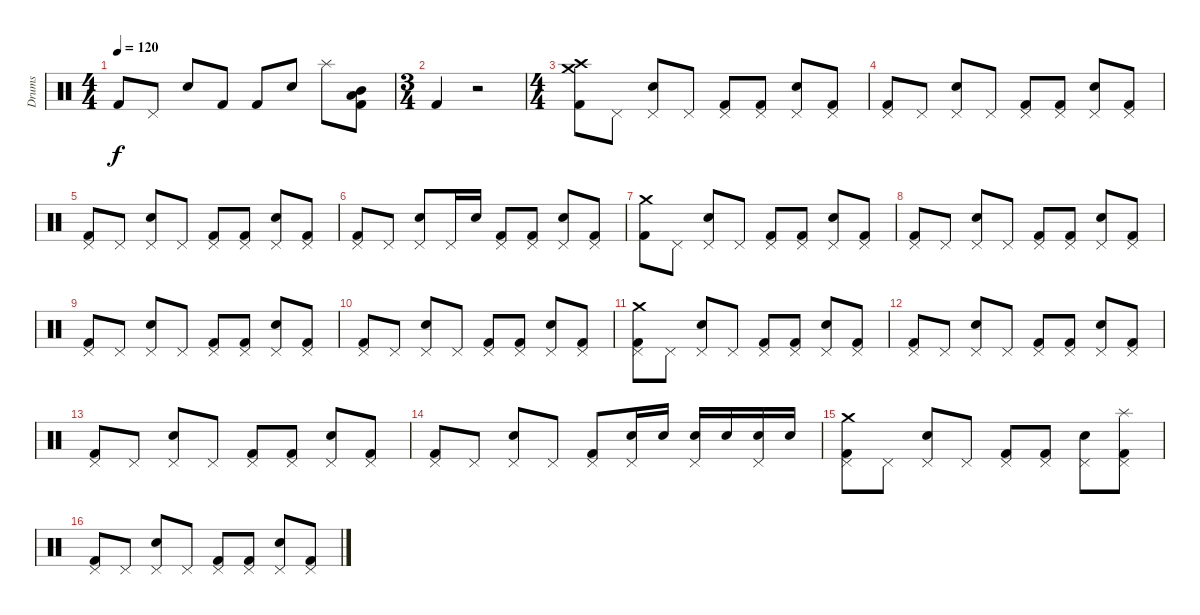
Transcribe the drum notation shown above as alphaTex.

\track ("Drums" "Drums") {instrument percussion}
\staff {score}
\articulation defaults
\ts (4 4)
\tempo 120
\clef neutral
\ks c "Kick (hit) 2".8{dy f} "Pedal Hi-Hat (hit)".8 "Snare (hit) 2".8 "Kick (hit) 2".8 "Kick (hit) 2".8 "Snare (hit) 2".8 "Splash (hit)".8
("Low Tom (hit)" "Mid Tom (hit)" "Kick (hit) 2").8 |
\ts (3 4)
"Kick (hit) 2".4 r.2 |
\ts (4 4)
("Crash high (hit)" "Crash medium (hit)" "Kick (hit) 2").8 "Pedal Hi-Hat (hit)".8 ("Pedal Hi-Hat (hit)" "Snare (hit) 2").8 "Pedal Hi-Hat (hit)".8 ("Pedal Hi-Hat (hit)" "Kick (hit) 2").8 ("Pedal Hi-Hat (hit)" "Kick (hit) 2").8 ("Pedal Hi-Hat (hit)" "Snare (hit) 2").8 ("Pedal Hi-Hat (hit)" "Kick (hit) 2").8 |
("Pedal Hi-Hat (hit)" "Kick (hit) 2").8 "Pedal Hi-Hat (hit)".8 ("Pedal Hi-Hat (hit)" "Snare (hit) 2").8 "Pedal Hi-Hat (hit)".8 ("Kick (hit) 2" "Pedal Hi-Hat (hit)").8 ("Kick (hit) 2" "Pedal Hi-Hat (hit)").8 ("Snare (hit) 2" "Pedal Hi-Hat (hit)").8 ("Kick (hit) 2" "Pedal Hi-Hat (hit)").8 |
("Pedal Hi-Hat (hit)" "Kick (hit) 2").8 "Pedal Hi-Hat (hit)".8 ("Pedal Hi-Hat (hit)" "Snare (hit) 2").8 "Pedal Hi-Hat (hit)".8 ("Kick (hit) 2" "Pedal Hi-Hat (hit)").8 ("Kick (hit) 2" "Pedal Hi-Hat (hit)").8 ("Snare (hit) 2" "Pedal Hi-Hat (hit)").8 ("Kick (hit) 2" "Pedal Hi-Hat (hit)").8 |
("Pedal Hi-Hat (hit)" "Kick (hit) 2").8 "Pedal Hi-Hat (hit)".8 ("Pedal Hi-Hat (hit)" "Snare (hit) 2").8 "Pedal Hi-Hat (hit)".16 "Snare (hit) 2".16 ("Kick (hit) 2" "Pedal Hi-Hat (hit)").8 ("Kick (hit) 2" "Pedal Hi-Hat (hit)").8 ("Snare (hit) 2" "Pedal Hi-Hat (hit)").8 ("Kick (hit) 2" "Pedal Hi-Hat (hit)").8 |
("Kick (hit) 2" "Crash medium (hit)").8 "Pedal Hi-Hat (hit)".8 ("Pedal Hi-Hat (hit)" "Snare (hit) 2").8 "Pedal Hi-Hat (hit)".8 ("Kick (hit) 2" "Pedal Hi-Hat (hit)").8 ("Kick (hit) 2" "Pedal Hi-Hat (hit)").8 ("Snare (hit) 2" "Pedal Hi-Hat (hit)").8 ("Kick (hit) 2" "Pedal Hi-Hat (hit)").8 |
("Pedal Hi-Hat (hit)" "Kick (hit) 2").8 "Pedal Hi-Hat (hit)".8 ("Pedal Hi-Hat (hit)" "Snare (hit) 2").8 "Pedal Hi-Hat (hit)".8 ("Kick (hit) 2" "Pedal Hi-Hat (hit)").8 ("Kick (hit) 2" "Pedal Hi-Hat (hit)").8 ("Snare (hit) 2" "Pedal Hi-Hat (hit)").8 ("Kick (hit) 2" "Pedal Hi-Hat (hit)").8 |
("Pedal Hi-Hat (hit)" "Kick (hit) 2").8 "Pedal Hi-Hat (hit)".8 ("Pedal Hi-Hat (hit)" "Snare (hit) 2").8 "Pedal Hi-Hat (hit)".8 ("Kick (hit) 2" "Pedal Hi-Hat (hit)").8 ("Kick (hit) 2" "Pedal Hi-Hat (hit)").8 ("Snare (hit) 2" "Pedal Hi-Hat (hit)").8 ("Kick (hit) 2" "Pedal Hi-Hat (hit)").8 |
("Pedal Hi-Hat (hit)" "Kick (hit) 2").8 "Pedal Hi-Hat (hit)".8 ("Pedal Hi-Hat (hit)" "Snare (hit) 2").8 "Pedal Hi-Hat (hit)".8 ("Pedal Hi-Hat (hit)" "Kick (hit) 2").8 ("Pedal Hi-Hat (hit)" "Kick (hit) 2").8 ("Pedal Hi-Hat (hit)" "Snare (hit) 2").8 ("Pedal Hi-Hat (hit)" "Kick (hit) 2").8 |
("Crash medium (hit)" "Pedal Hi-Hat (hit)" "Kick (hit) 2").8 "Pedal Hi-Hat (hit)".8 ("Pedal Hi-Hat (hit)" "Snare (hit) 2").8 "Pedal Hi-Hat (hit)".8 ("Pedal Hi-Hat (hit)" "Kick (hit) 2").8 ("Pedal Hi-Hat (hit)" "Kick (hit) 2").8 ("Pedal Hi-Hat (hit)" "Snare (hit) 2").8 ("Pedal Hi-Hat (hit)" "Kick (hit) 2").8 |
("Pedal Hi-Hat (hit)" "Kick (hit) 2").8 "Pedal Hi-Hat (hit)".8 ("Pedal Hi-Hat (hit)" "Snare (hit) 2").8 "Pedal Hi-Hat (hit)".8 ("Pedal Hi-Hat (hit)" "Kick (hit) 2").8 ("Pedal Hi-Hat (hit)" "Kick (hit) 2").8 ("Pedal Hi-Hat (hit)" "Snare (hit) 2").8 ("Pedal Hi-Hat (hit)" "Kick (hit) 2").8 |
("Pedal Hi-Hat (hit)" "Kick (hit) 2").8 "Pedal Hi-Hat (hit)".8 ("Pedal Hi-Hat (hit)" "Snare (hit) 2").8 "Pedal Hi-Hat (hit)".8 ("Pedal Hi-Hat (hit)" "Kick (hit) 2").8 ("Pedal Hi-Hat (hit)" "Kick (hit) 2").8 ("Pedal Hi-Hat (hit)" "Snare (hit) 2").8 ("Pedal Hi-Hat (hit)" "Kick (hit) 2").8 |
("Pedal Hi-Hat (hit)" "Kick (hit) 2").8 "Pedal Hi-Hat (hit)".8 ("Pedal Hi-Hat (hit)" "Snare (hit) 2").8 "Pedal Hi-Hat (hit)".8 ("Pedal Hi-Hat (hit)" "Kick (hit) 2").8 ("Pedal Hi-Hat (hit)" "Snare (hit) 2").16 "Snare (hit) 2".16 ("Pedal Hi-Hat (hit)" "Snare (hit) 2").16 "Snare (hit) 2".16 ("Pedal Hi-Hat (hit)" "Snare (hit) 2").16 "Snare (hit) 2".16 |
("Crash medium (hit)" "Pedal Hi-Hat (hit)" "Kick (hit) 2").8 "Pedal Hi-Hat (hit)".8 ("Pedal Hi-Hat (hit)" "Snare (hit) 2").8 "Pedal Hi-Hat (hit)".8 ("Pedal Hi-Hat (hit)" "Kick (hit) 2").8 ("Pedal Hi-Hat (hit)" "Kick (hit) 2").8 ("Pedal Hi-Hat (hit)" "Snare (hit) 2").8 ("Pedal Hi-Hat (hit)" "Splash (hit)" "Kick (hit) 2").8 |
("Pedal Hi-Hat (hit)" "Kick (hit) 2").8 "Pedal Hi-Hat (hit)".8 ("Pedal Hi-Hat (hit)" "Snare (hit) 2").8 "Pedal Hi-Hat (hit)".8 ("Pedal Hi-Hat (hit)" "Kick (hit) 2").8 ("Pedal Hi-Hat (hit)" "Kick (hit) 2").8 ("Pedal Hi-Hat (hit)" "Snare (hit) 2").8 ("Pedal Hi-Hat (hit)" "Kick (hit) 2").8
